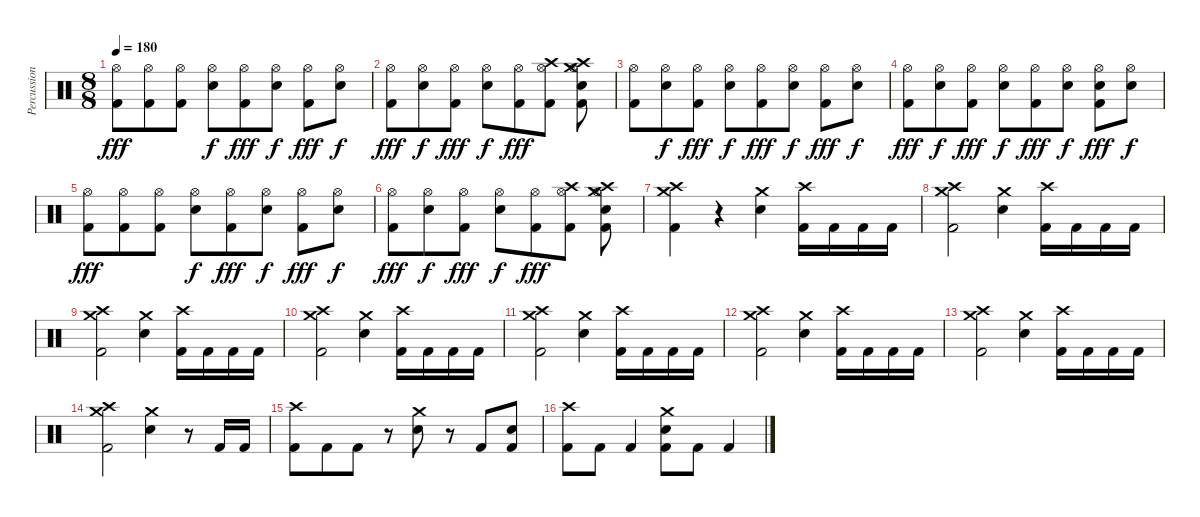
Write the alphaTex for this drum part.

\track ("Percussion" "Percussion") {instrument percussion}
\staff {score}
\articulation defaults
\ts (8 8)
\tempo 180
\clef neutral
\ks c
("Hi-Hat (open)" "Kick (hit) 2").8{dy fff} ("Hi-Hat (open)" "Kick (hit) 2").8 ("Hi-Hat (open)" "Kick (hit) 2").8 ("Hi-Hat (open)" "Snare (hit) 2").8{dy f} ("Hi-Hat (open)" "Kick (hit) 2").8{dy fff} ("Hi-Hat (open)" "Snare (hit) 2").8{dy f} ("Hi-Hat (open)" "Kick (hit) 2").8{dy fff} ("Hi-Hat (open)" "Snare (hit) 2").8{dy f} |
("Hi-Hat (open)" "Kick (hit) 2").8{dy fff} ("Hi-Hat (open)" "Snare (hit) 2").8{dy f} ("Hi-Hat (open)" "Kick (hit) 2").8{dy fff} ("Hi-Hat (open)" "Snare (hit) 2").8{dy f} ("Hi-Hat (open)" "Kick (hit) 2").8{dy fff} ("Crash high (hit)" "Hi-Hat (open)" "Kick (hit) 2").8 ("Crash medium (hit)" "Crash high (hit)" "Hi-Hat (open)" "Snare (hit) 2" "Kick (hit) 2").8 |
("Hi-Hat (open)" "Kick (hit) 2").8 ("Hi-Hat (open)" "Snare (hit) 2").8{dy f} ("Hi-Hat (open)" "Kick (hit) 2").8{dy fff} ("Hi-Hat (open)" "Snare (hit) 2").8{dy f} ("Hi-Hat (open)" "Kick (hit) 2").8{dy fff} ("Hi-Hat (open)" "Snare (hit) 2").8{dy f} ("Hi-Hat (open)" "Kick (hit) 2").8{dy fff} ("Hi-Hat (open)" "Snare (hit) 2").8{dy f} |
("Hi-Hat (open)" "Kick (hit) 2").8{dy fff} ("Hi-Hat (open)" "Snare (hit) 2").8{dy f} ("Hi-Hat (open)" "Kick (hit) 2").8{dy fff} ("Hi-Hat (open)" "Snare (hit) 2").8{dy f} ("Hi-Hat (open)" "Kick (hit) 2").8{dy fff} ("Hi-Hat (open)" "Snare (hit) 2").8{dy f} ("Hi-Hat (open)" "Snare (hit) 2" "Kick (hit) 2").8{dy fff} ("Hi-Hat (open)" "Snare (hit) 2").8{dy f} |
("Hi-Hat (open)" "Kick (hit) 2").8{dy fff} ("Hi-Hat (open)" "Kick (hit) 2").8 ("Hi-Hat (open)" "Kick (hit) 2").8 ("Hi-Hat (open)" "Snare (hit) 2").8{dy f} ("Hi-Hat (open)" "Kick (hit) 2").8{dy fff} ("Hi-Hat (open)" "Snare (hit) 2").8{dy f} ("Hi-Hat (open)" "Kick (hit) 2").8{dy fff} ("Hi-Hat (open)" "Snare (hit) 2").8{dy f} |
("Hi-Hat (open)" "Kick (hit) 2").8{dy fff} ("Hi-Hat (open)" "Snare (hit) 2").8{dy f} ("Hi-Hat (open)" "Kick (hit) 2").8{dy fff} ("Hi-Hat (open)" "Snare (hit) 2").8{dy f} ("Hi-Hat (open)" "Kick (hit) 2").8{dy fff} ("Crash high (hit)" "Hi-Hat (open)" "Kick (hit) 2").8 ("Crash medium (hit)" "Crash high (hit)" "Hi-Hat (open)" "Snare (hit) 2" "Kick (hit) 2").8 |
("Crash medium (hit)" "Crash high (hit)" "Kick (hit) 2").4 r.4 ("Crash medium (hit)" "Snare (hit) 2").4 ("Crash high (hit)" "Kick (hit) 2").16 "Kick (hit) 2".16 "Kick (hit) 2".16 "Kick (hit) 2".16 |
("Crash medium (hit)" "Crash high (hit)" "Kick (hit) 2").2 ("Crash medium (hit)" "Snare (hit) 2").4 ("Crash high (hit)" "Kick (hit) 2").16 "Kick (hit) 2".16 "Kick (hit) 2".16 "Kick (hit) 2".16 |
("Crash medium (hit)" "Crash high (hit)" "Kick (hit) 2").2 ("Crash medium (hit)" "Snare (hit) 2").4 ("Crash high (hit)" "Kick (hit) 2").16 "Kick (hit) 2".16 "Kick (hit) 2".16 "Kick (hit) 2".16 |
("Crash medium (hit)" "Crash high (hit)" "Kick (hit) 2").2 ("Crash medium (hit)" "Snare (hit) 2").4 ("Crash high (hit)" "Kick (hit) 2").16 "Kick (hit) 2".16 "Kick (hit) 2".16 "Kick (hit) 2".16 |
("Crash medium (hit)" "Crash high (hit)" "Kick (hit) 2").2 ("Crash medium (hit)" "Snare (hit) 2").4 ("Crash high (hit)" "Kick (hit) 2").16 "Kick (hit) 2".16 "Kick (hit) 2".16 "Kick (hit) 2".16 |
("Crash medium (hit)" "Crash high (hit)" "Kick (hit) 2").2 ("Crash medium (hit)" "Snare (hit) 2").4 ("Crash high (hit)" "Kick (hit) 2").16 "Kick (hit) 2".16 "Kick (hit) 2".16 "Kick (hit) 2".16 |
("Crash medium (hit)" "Crash high (hit)" "Kick (hit) 2").2 ("Crash medium (hit)" "Snare (hit) 2").4 ("Crash high (hit)" "Kick (hit) 2").16 "Kick (hit) 2".16 "Kick (hit) 2".16 "Kick (hit) 2".16 |
("Crash medium (hit)" "Crash high (hit)" "Kick (hit) 2").2 ("Crash medium (hit)" "Snare (hit) 2").4 r.8 "Kick (hit) 2".16 "Kick (hit) 2".16 |
("Crash high (hit)" "Kick (hit) 2").8 "Kick (hit) 2".8 "Kick (hit) 2".8 r.8 ("Crash medium (hit)" "Snare (hit) 2").8 r.8 "Kick (hit) 2".8 ("Snare (hit) 2" "Kick (hit) 2").8 |
("Crash high (hit)" "Kick (hit) 2").8 "Kick (hit) 2".8 "Kick (hit) 2".4 ("Crash medium (hit)" "Snare (hit) 2" "Kick (hit) 2").8 "Kick (hit) 2".8 "Kick (hit) 2".4
